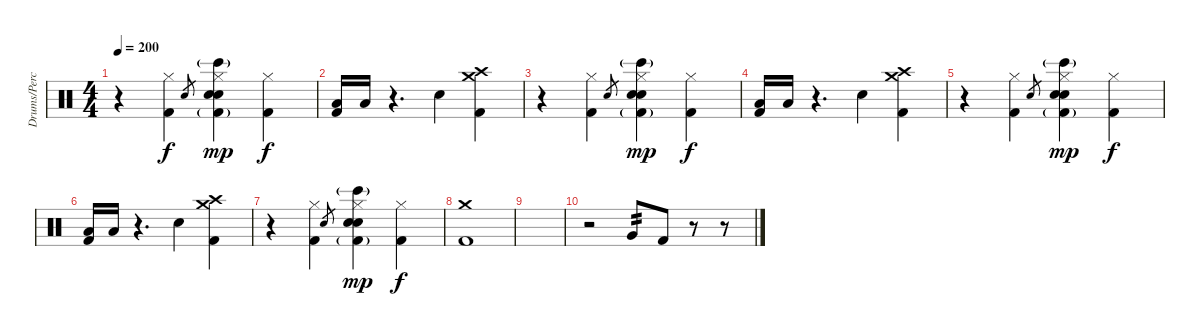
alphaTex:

\track ("Drums/Percussion" "Drums/Perc") {instrument percussion}
\staff {score}
\articulation defaults
\ts (4 4)
\tempo 200
\clef neutral
\ks c
r.4{dy f} ("Kick (hit) 2" "Hi-Hat (closed)").4 "Snare (hit) 2".8{gr} ("Kick (hit) 2"{g} "Snare (hit) 2" "Hi-Hat (closed)" "Hand Clap (hit)" "Bongo High (hit)"{g}).4{dy mp} ("Kick (hit) 2" "Hi-Hat (closed)").4{dy f} |
("Kick (hit) 2" "Low Floor Tom (hit)").16 "Low Floor Tom (hit)".16 r.4{d} "Snare (hit) 2".4 ("Kick (hit) 2" "Crash high (hit)" "Crash medium (hit)").4 |
r.4 ("Kick (hit) 2" "Hi-Hat (closed)").4 "Snare (hit) 2".8{gr} ("Kick (hit) 2"{g} "Snare (hit) 2" "Hi-Hat (closed)" "Hand Clap (hit)" "Bongo High (hit)"{g}).4{dy mp} ("Kick (hit) 2" "Hi-Hat (closed)").4{dy f} |
("Kick (hit) 2" "Low Floor Tom (hit)").16 "Low Floor Tom (hit)".16 r.4{d} "Snare (hit) 2".4 ("Kick (hit) 2" "Crash high (hit)" "Crash medium (hit)").4 |
r.4 ("Kick (hit) 2" "Hi-Hat (closed)").4 "Snare (hit) 2".8{gr} ("Kick (hit) 2"{g} "Snare (hit) 2" "Hi-Hat (closed)" "Hand Clap (hit)" "Bongo High (hit)"{g}).4{dy mp} ("Kick (hit) 2" "Hi-Hat (closed)").4{dy f} |
("Kick (hit) 2" "Low Floor Tom (hit)").16 "Low Floor Tom (hit)".16 r.4{d} "Snare (hit) 2".4 ("Kick (hit) 2" "Crash high (hit)" "Crash medium (hit)").4 |
r.4 ("Kick (hit) 2" "Hi-Hat (closed)").4 "Snare (hit) 2".8{gr} ("Kick (hit) 2"{g} "Snare (hit) 2" "Hi-Hat (closed)" "Hand Clap (hit)" "Bongo High (hit)"{g}).4{dy mp} ("Kick (hit) 2" "Hi-Hat (closed)").4{dy f} |
("Kick (hit) 2" "Crash medium (hit)").1 |
|
r.2 "Very Low Tom (hit)".8{tp 2} "Kick (hit) 2".8 r.8 r.8
